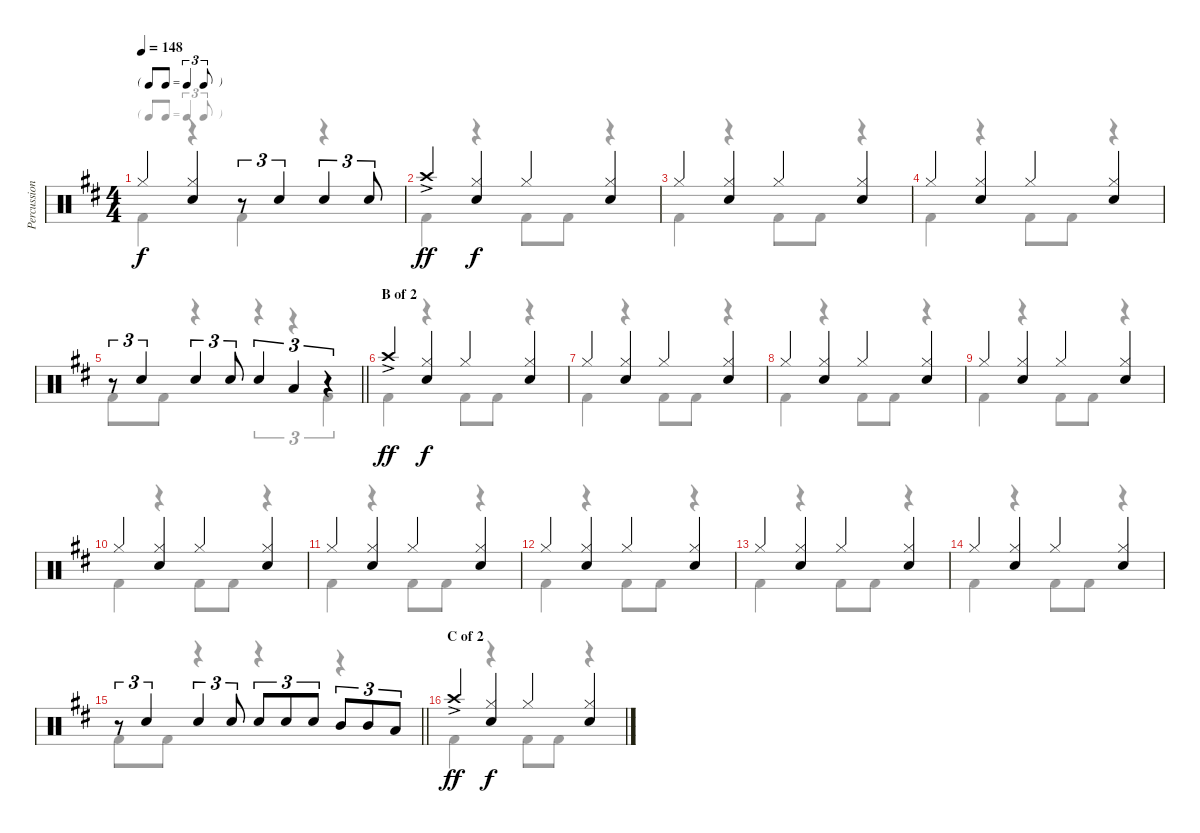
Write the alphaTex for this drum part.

\track ("Percussion" "Percussion") {instrument percussion}
\staff {score}
\articulation defaults
\voice
\ts (4 4)
\tf triplet8th
\tempo 148
\clef neutral
\ks bminor "Hi-Hat (closed)".4{dy f}
("Hi-Hat (closed)" "Snare (hit) 2").4 r.8{tu (3 2)} "Snare (hit) 2".4{tu (3 2)} "Snare (hit) 2".4{tu (3 2)} "Snare (hit) 2".8{tu (3 2)} |
"Crash high (hit)"{ac}.4{dy ff} ("Hi-Hat (closed)" "Snare (hit) 2").4{dy f} "Hi-Hat (closed)".4 ("Hi-Hat (closed)" "Snare (hit) 2").4 |
"Hi-Hat (closed)".4 ("Hi-Hat (closed)" "Snare (hit) 2").4 "Hi-Hat (closed)".4 ("Hi-Hat (closed)" "Snare (hit) 2").4 |
"Hi-Hat (closed)".4 ("Hi-Hat (closed)" "Snare (hit) 2").4 "Hi-Hat (closed)".4 ("Hi-Hat (closed)" "Snare (hit) 2").4 |
\barLineRight lightlight
r.8{tu (3 2)} "Snare (hit) 2".4{tu (3 2)} "Snare (hit) 2".4{tu (3 2)} "Snare (hit) 2".8{tu (3 2)} "Snare (hit) 2".4{tu (3 2)} "Low Tom (hit)".4{tu (3 2)} r.4{tu (3 2)} |
\section ("" "B of 2")
"Crash high (hit)"{ac}.4{dy ff} ("Hi-Hat (closed)" "Snare (hit) 2").4{dy f} "Hi-Hat (closed)".4 ("Hi-Hat (closed)" "Snare (hit) 2").4 |
"Hi-Hat (closed)".4 ("Hi-Hat (closed)" "Snare (hit) 2").4 "Hi-Hat (closed)".4 ("Hi-Hat (closed)" "Snare (hit) 2").4 |
"Hi-Hat (closed)".4 ("Hi-Hat (closed)" "Snare (hit) 2").4 "Hi-Hat (closed)".4 ("Hi-Hat (closed)" "Snare (hit) 2").4 |
"Hi-Hat (closed)".4 ("Hi-Hat (closed)" "Snare (hit) 2").4 "Hi-Hat (closed)".4 ("Hi-Hat (closed)" "Snare (hit) 2").4 |
"Hi-Hat (closed)".4 ("Hi-Hat (closed)" "Snare (hit) 2").4 "Hi-Hat (closed)".4 ("Hi-Hat (closed)" "Snare (hit) 2").4 |
"Hi-Hat (closed)".4 ("Hi-Hat (closed)" "Snare (hit) 2").4 "Hi-Hat (closed)".4 ("Hi-Hat (closed)" "Snare (hit) 2").4 |
"Hi-Hat (closed)".4 ("Hi-Hat (closed)" "Snare (hit) 2").4 "Hi-Hat (closed)".4 ("Hi-Hat (closed)" "Snare (hit) 2").4 |
"Hi-Hat (closed)".4 ("Hi-Hat (closed)" "Snare (hit) 2").4 "Hi-Hat (closed)".4 ("Hi-Hat (closed)" "Snare (hit) 2").4 |
"Hi-Hat (closed)".4 ("Hi-Hat (closed)" "Snare (hit) 2").4 "Hi-Hat (closed)".4 ("Hi-Hat (closed)" "Snare (hit) 2").4 |
\barLineRight lightlight
r.8{tu (3 2)} "Snare (hit) 2".4{tu (3 2)} "Snare (hit) 2".4{tu (3 2)} "Snare (hit) 2".8{tu (3 2)} "Snare (hit) 2".8{tu (3 2)} "Snare (hit) 2".8{tu (3 2)} "Snare (hit) 2".8{tu (3 2)} "Mid Tom (hit)".8{tu (3 2)} "Mid Tom (hit)".8{tu (3 2)} "Low Tom (hit)".8{tu (3 2)} |
\section ("" "C of 2")
"Crash high (hit)"{ac}.4{dy ff} ("Hi-Hat (closed)" "Snare (hit) 2").4{dy f} "Hi-Hat (closed)".4 ("Hi-Hat (closed)" "Snare (hit) 2").4
\voice
\clef neutral
\ottava regular
\simile none
\ks bminor "Kick (hit) 2".4{dy f}
r.4 "Kick (hit) 2".4 r.4 |
"Kick (hit) 2".4 r.4 "Kick (hit) 2".8 "Kick (hit) 2".8 r.4 |
"Kick (hit) 2".4 r.4 "Kick (hit) 2".8 "Kick (hit) 2".8 r.4 |
"Kick (hit) 2".4 r.4 "Kick (hit) 2".8 "Kick (hit) 2".8 r.4 |
\barLineRight lightlight "Kick (hit) 2".8 "Kick (hit) 2".8
r.4 r.4{tu (3 2)} r.4{tu (3 2)} "Kick (hit) 2".4{tu (3 2)} |
"Kick (hit) 2".4 r.4 "Kick (hit) 2".8 "Kick (hit) 2".8 r.4 |
"Kick (hit) 2".4 r.4 "Kick (hit) 2".8 "Kick (hit) 2".8 r.4 |
"Kick (hit) 2".4 r.4 "Kick (hit) 2".8 "Kick (hit) 2".8 r.4 |
"Kick (hit) 2".4 r.4 "Kick (hit) 2".8 "Kick (hit) 2".8 r.4 |
"Kick (hit) 2".4 r.4 "Kick (hit) 2".8 "Kick (hit) 2".8 r.4 |
"Kick (hit) 2".4 r.4 "Kick (hit) 2".8 "Kick (hit) 2".8 r.4 |
"Kick (hit) 2".4 r.4 "Kick (hit) 2".8 "Kick (hit) 2".8 r.4 |
"Kick (hit) 2".4 r.4 "Kick (hit) 2".8 "Kick (hit) 2".8 r.4 |
"Kick (hit) 2".4 r.4 "Kick (hit) 2".8 "Kick (hit) 2".8 r.4 |
\barLineRight lightlight "Kick (hit) 2".8 "Kick (hit) 2".8
r.4 r.4 r.4 |
"Kick (hit) 2".4 r.4 "Kick (hit) 2".8 "Kick (hit) 2".8 r.4
